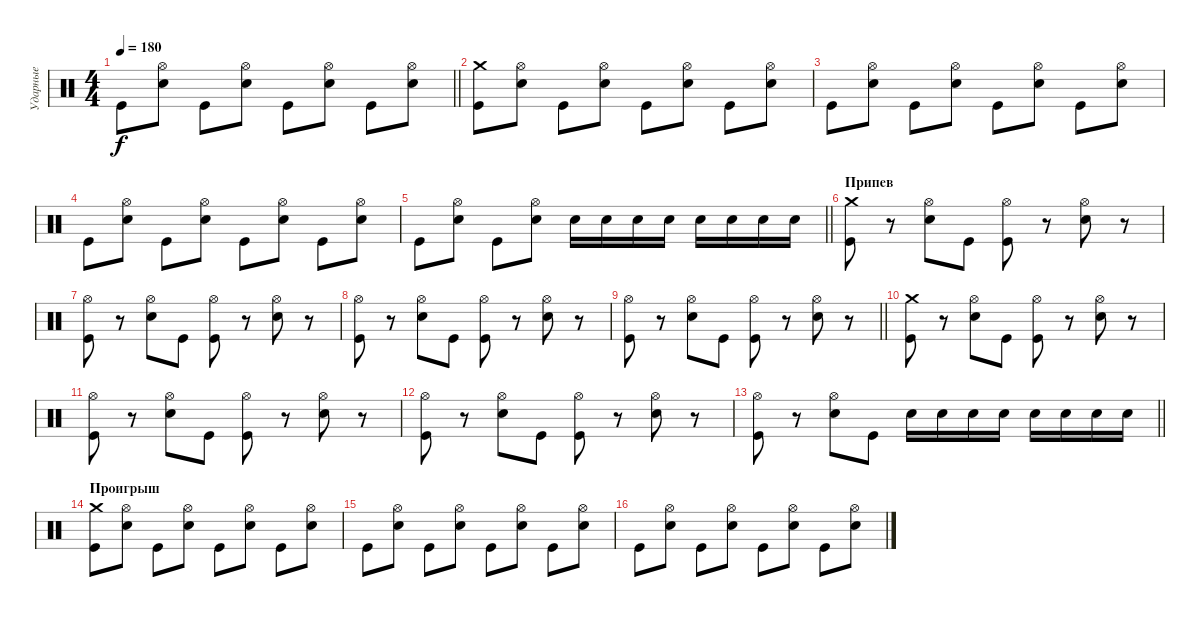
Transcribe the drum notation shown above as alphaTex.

\track ("Ударные" "Ударные") {instrument percussion}
\staff {score}
\articulation defaults
\ts (4 4)
\tempo 180
\clef neutral
\barLineRight lightlight
\ks c "Kick (hit)".8{dy f}
("Hi-Hat (open)" "Electric Snare (hit)").8 "Kick (hit)".8 ("Hi-Hat (open)" "Electric Snare (hit)").8 "Kick (hit)".8 ("Hi-Hat (open)" "Electric Snare (hit)").8 "Kick (hit)".8 ("Hi-Hat (open)" "Electric Snare (hit)").8 |
("Crash medium (hit)" "Kick (hit)").8 ("Hi-Hat (open)" "Electric Snare (hit)").8 "Kick (hit)".8 ("Hi-Hat (open)" "Electric Snare (hit)").8 "Kick (hit)".8 ("Hi-Hat (open)" "Electric Snare (hit)").8 "Kick (hit)".8 ("Hi-Hat (open)" "Electric Snare (hit)").8 |
"Kick (hit)".8 ("Hi-Hat (open)" "Electric Snare (hit)").8 "Kick (hit)".8 ("Hi-Hat (open)" "Electric Snare (hit)").8 "Kick (hit)".8 ("Hi-Hat (open)" "Electric Snare (hit)").8 "Kick (hit)".8 ("Hi-Hat (open)" "Electric Snare (hit)").8 |
"Kick (hit)".8 ("Hi-Hat (open)" "Electric Snare (hit)").8 "Kick (hit)".8 ("Hi-Hat (open)" "Electric Snare (hit)").8 "Kick (hit)".8 ("Hi-Hat (open)" "Electric Snare (hit)").8 "Kick (hit)".8 ("Hi-Hat (open)" "Electric Snare (hit)").8 |
\barLineRight lightlight "Kick (hit)".8
("Hi-Hat (open)" "Electric Snare (hit)").8 "Kick (hit)".8 ("Hi-Hat (open)" "Electric Snare (hit)").8 "Electric Snare (hit)".16 "Electric Snare (hit)".16 "Electric Snare (hit)".16 "Electric Snare (hit)".16 "Electric Snare (hit)".16 "Electric Snare (hit)".16 "Electric Snare (hit)".16 "Electric Snare (hit)".16 |
\section ("" "Припев")
("Crash medium (hit)" "Kick (hit)").8 r.8 ("Hi-Hat (open)" "Electric Snare (hit)").8 "Kick (hit)".8 ("Hi-Hat (open)" "Kick (hit)").8 r.8 ("Hi-Hat (open)" "Electric Snare (hit)").8 r.8 |
("Hi-Hat (open)" "Kick (hit)").8 r.8 ("Hi-Hat (open)" "Electric Snare (hit)").8 "Kick (hit)".8 ("Hi-Hat (open)" "Kick (hit)").8 r.8 ("Hi-Hat (open)" "Electric Snare (hit)").8 r.8 |
("Hi-Hat (open)" "Kick (hit)").8 r.8 ("Hi-Hat (open)" "Electric Snare (hit)").8 "Kick (hit)".8 ("Hi-Hat (open)" "Kick (hit)").8 r.8 ("Hi-Hat (open)" "Electric Snare (hit)").8 r.8 |
\barLineRight lightlight
("Hi-Hat (open)" "Kick (hit)").8 r.8 ("Hi-Hat (open)" "Electric Snare (hit)").8 "Kick (hit)".8 ("Hi-Hat (open)" "Kick (hit)").8 r.8 ("Hi-Hat (open)" "Electric Snare (hit)").8 r.8 |
("Crash medium (hit)" "Kick (hit)").8 r.8 ("Hi-Hat (open)" "Electric Snare (hit)").8 "Kick (hit)".8 ("Hi-Hat (open)" "Kick (hit)").8 r.8 ("Hi-Hat (open)" "Electric Snare (hit)").8 r.8 |
("Hi-Hat (open)" "Kick (hit)").8 r.8 ("Hi-Hat (open)" "Electric Snare (hit)").8 "Kick (hit)".8 ("Hi-Hat (open)" "Kick (hit)").8 r.8 ("Hi-Hat (open)" "Electric Snare (hit)").8 r.8 |
("Hi-Hat (open)" "Kick (hit)").8 r.8 ("Hi-Hat (open)" "Electric Snare (hit)").8 "Kick (hit)".8 ("Hi-Hat (open)" "Kick (hit)").8 r.8 ("Hi-Hat (open)" "Electric Snare (hit)").8 r.8 |
\barLineRight lightlight
("Hi-Hat (open)" "Kick (hit)").8 r.8 ("Hi-Hat (open)" "Electric Snare (hit)").8 "Kick (hit)".8 "Electric Snare (hit)".16 "Electric Snare (hit)".16 "Electric Snare (hit)".16 "Electric Snare (hit)".16 "Electric Snare (hit)".16 "Electric Snare (hit)".16 "Electric Snare (hit)".16 "Electric Snare (hit)".16 |
\section ("" "Проигрыш")
("Crash medium (hit)" "Kick (hit)").8 ("Hi-Hat (open)" "Electric Snare (hit)").8 "Kick (hit)".8 ("Hi-Hat (open)" "Electric Snare (hit)").8 "Kick (hit)".8 ("Hi-Hat (open)" "Electric Snare (hit)").8 "Kick (hit)".8 ("Hi-Hat (open)" "Electric Snare (hit)").8 |
"Kick (hit)".8 ("Hi-Hat (open)" "Electric Snare (hit)").8 "Kick (hit)".8 ("Hi-Hat (open)" "Electric Snare (hit)").8 "Kick (hit)".8 ("Hi-Hat (open)" "Electric Snare (hit)").8 "Kick (hit)".8 ("Hi-Hat (open)" "Electric Snare (hit)").8 |
"Kick (hit)".8 ("Hi-Hat (open)" "Electric Snare (hit)").8 "Kick (hit)".8 ("Hi-Hat (open)" "Electric Snare (hit)").8 "Kick (hit)".8 ("Hi-Hat (open)" "Electric Snare (hit)").8 "Kick (hit)".8 ("Hi-Hat (open)" "Electric Snare (hit)").8
